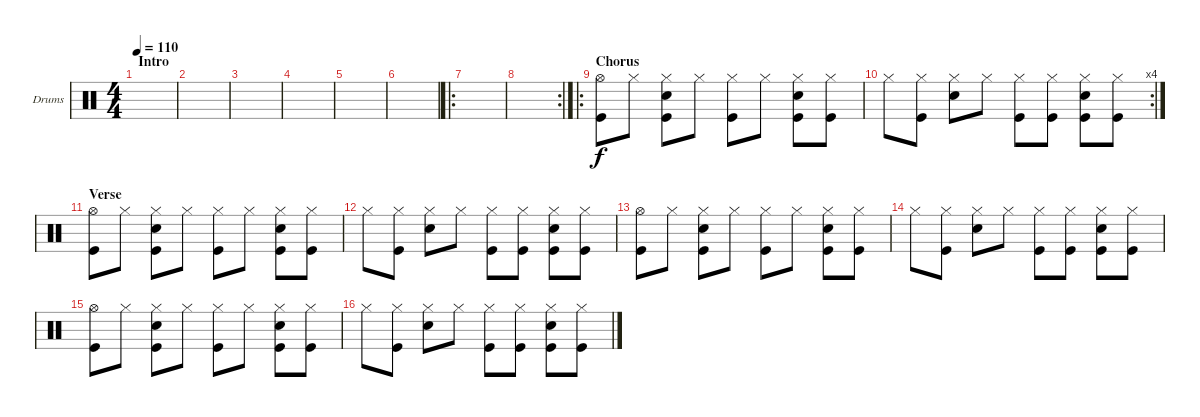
\defaultSystemsLayout 4
\bracketExtendMode groupsimilarinstruments
\firstSystemTrackNameOrientation horizontal
\otherSystemsTrackNameOrientation horizontal
\track ("Drumkit" "Drums") {instrument percussion}
\staff {score}
\articulation defaults
\ts (4 4)
\section ("" "Intro")
\tempo 110
\clef neutral
\ks c
|
|
|
|
|
|
\ro
|
\rc 2
|
\ro
\section ("" "Chorus")
("Kick (hit)" "Hi-Hat (open)").8 "Hi-Hat (closed)".8 ("Kick (hit)" "Hi-Hat (closed)" "Snare (hit) 2").8 "Hi-Hat (closed)".8 ("Kick (hit)" "Hi-Hat (closed)").8 "Hi-Hat (closed)".8 ("Kick (hit)" "Hi-Hat (closed)" "Snare (hit) 2").8 ("Kick (hit)" "Hi-Hat (closed)").8 |
\rc 4 "Hi-Hat (closed)".8
("Kick (hit)" "Hi-Hat (closed)").8 ("Hi-Hat (closed)" "Snare (hit) 2").8 "Hi-Hat (closed)".8 ("Kick (hit)" "Hi-Hat (closed)").8 ("Kick (hit)" "Hi-Hat (closed)").8 ("Kick (hit)" "Hi-Hat (closed)" "Snare (hit) 2").8 ("Kick (hit)" "Hi-Hat (closed)").8 |
\section ("" "Verse")
("Kick (hit)" "Hi-Hat (open)").8 "Hi-Hat (closed)".8 ("Kick (hit)" "Hi-Hat (closed)" "Snare (hit) 2").8 "Hi-Hat (closed)".8 ("Kick (hit)" "Hi-Hat (closed)").8 "Hi-Hat (closed)".8 ("Kick (hit)" "Hi-Hat (closed)" "Snare (hit) 2").8 ("Kick (hit)" "Hi-Hat (closed)").8 |
"Hi-Hat (closed)".8 ("Kick (hit)" "Hi-Hat (closed)").8 ("Hi-Hat (closed)" "Snare (hit) 2").8 "Hi-Hat (closed)".8 ("Kick (hit)" "Hi-Hat (closed)").8 ("Kick (hit)" "Hi-Hat (closed)").8 ("Kick (hit)" "Hi-Hat (closed)" "Snare (hit) 2").8 ("Kick (hit)" "Hi-Hat (closed)").8 |
("Kick (hit)" "Hi-Hat (open)").8 "Hi-Hat (closed)".8 ("Kick (hit)" "Hi-Hat (closed)" "Snare (hit) 2").8 "Hi-Hat (closed)".8 ("Kick (hit)" "Hi-Hat (closed)").8 "Hi-Hat (closed)".8 ("Kick (hit)" "Hi-Hat (closed)" "Snare (hit) 2").8 ("Kick (hit)" "Hi-Hat (closed)").8 |
"Hi-Hat (closed)".8 ("Kick (hit)" "Hi-Hat (closed)").8 ("Hi-Hat (closed)" "Snare (hit) 2").8 "Hi-Hat (closed)".8 ("Kick (hit)" "Hi-Hat (closed)").8 ("Kick (hit)" "Hi-Hat (closed)").8 ("Kick (hit)" "Hi-Hat (closed)" "Snare (hit) 2").8 ("Kick (hit)" "Hi-Hat (closed)").8 |
("Kick (hit)" "Hi-Hat (open)").8 "Hi-Hat (closed)".8 ("Kick (hit)" "Hi-Hat (closed)" "Snare (hit) 2").8 "Hi-Hat (closed)".8 ("Kick (hit)" "Hi-Hat (closed)").8 "Hi-Hat (closed)".8 ("Kick (hit)" "Hi-Hat (closed)" "Snare (hit) 2").8 ("Kick (hit)" "Hi-Hat (closed)").8 |
"Hi-Hat (closed)".8 ("Kick (hit)" "Hi-Hat (closed)").8 ("Hi-Hat (closed)" "Snare (hit) 2").8 "Hi-Hat (closed)".8 ("Kick (hit)" "Hi-Hat (closed)").8 ("Kick (hit)" "Hi-Hat (closed)").8 ("Kick (hit)" "Hi-Hat (closed)" "Snare (hit) 2").8 ("Kick (hit)" "Hi-Hat (closed)").8
